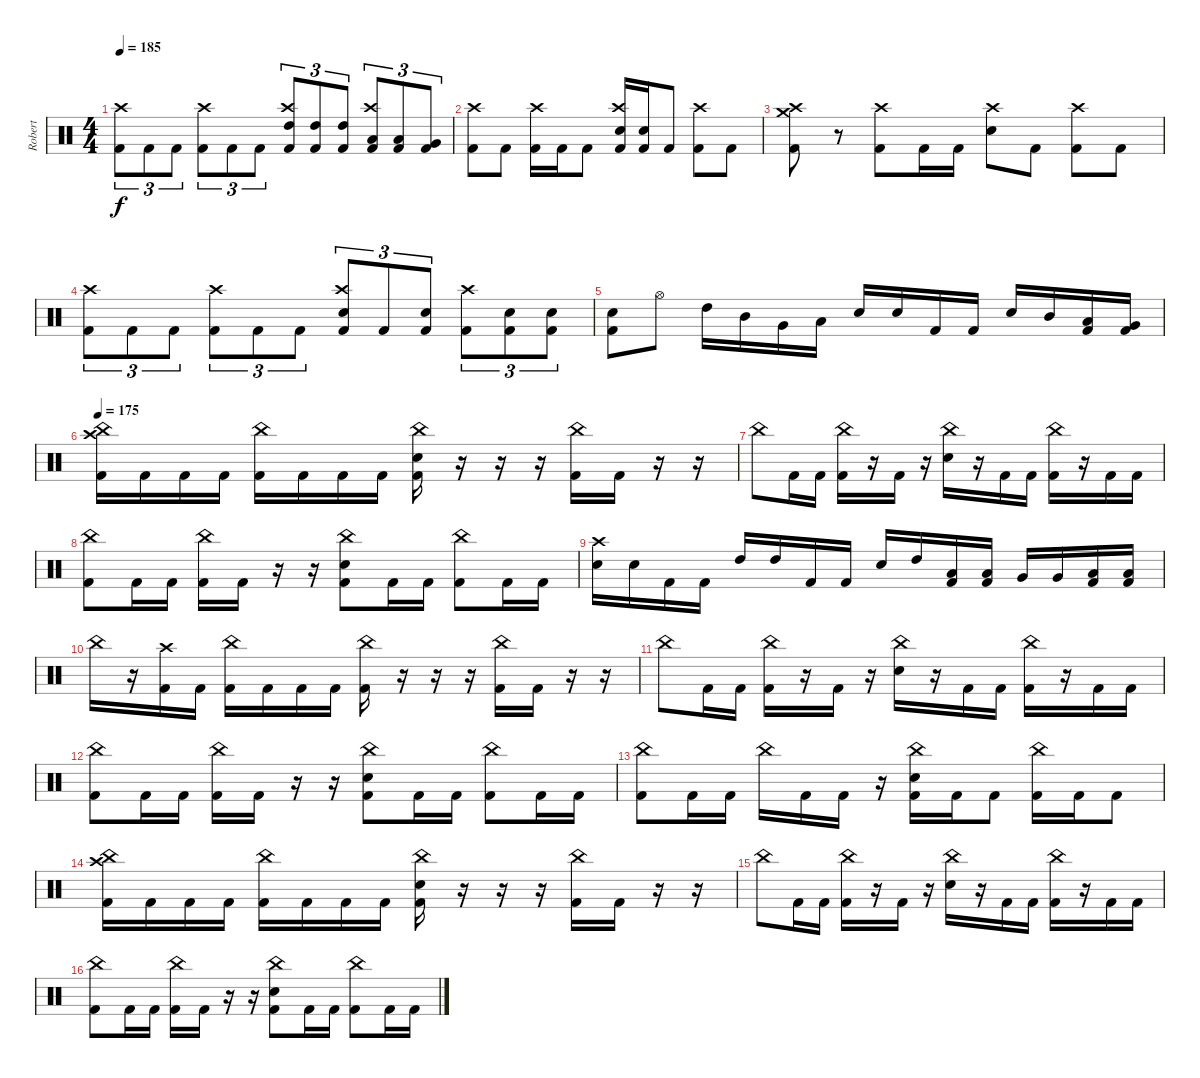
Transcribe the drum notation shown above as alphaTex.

\track ("Robert" "Robert") {instrument percussion}
\staff {score}
\articulation defaults
\ts (4 4)
\tempo 185
\clef neutral
\ks c
("Kick (hit) 2" "Crash high (hit)").8{tu (3 2) dy f} "Kick (hit) 2".8{tu (3 2)} "Kick (hit) 2".8{tu (3 2)} ("Kick (hit) 2" "Crash high (hit)").8{tu (3 2)} "Kick (hit) 2".8{tu (3 2)} "Kick (hit) 2".8{tu (3 2)} ("Kick (hit) 2" "High Tom (hit)" "Crash high (hit)").8{tu (3 2)} ("Kick (hit) 2" "High Tom (hit)").8{tu (3 2)} ("Kick (hit) 2" "High Tom (hit)").8{tu (3 2)} ("Kick (hit) 2" "Low Tom (hit)" "Crash high (hit)").8{tu (3 2)} ("Kick (hit) 2" "Low Tom (hit)").8{tu (3 2)} ("Kick (hit) 2" "Very Low Tom (hit)").8{tu (3 2)} |
("Crash high (hit)" "Kick (hit) 2").8 "Kick (hit) 2".8 ("Crash high (hit)" "Kick (hit) 2").16 "Kick (hit) 2".16 "Kick (hit) 2".8 ("Crash high (hit)" "Electric Snare (hit)" "Kick (hit) 2").16 ("Electric Snare (hit)" "Kick (hit) 2").16 "Kick (hit) 2".8 ("Crash high (hit)" "Kick (hit) 2").8 "Kick (hit) 2".8 |
("Kick (hit) 2" "Crash medium (hit)" "Crash high (hit)").8 r.8 ("Kick (hit) 2" "Crash high (hit)").8 "Kick (hit) 2".16 "Kick (hit) 2".16 ("Electric Snare (hit)" "Crash high (hit)").8 "Kick (hit) 2".8 ("Crash high (hit)" "Kick (hit) 2").8 "Kick (hit) 2".8 |
("Kick (hit) 2" "Crash high (hit)").8{tu (3 2)} "Kick (hit) 2".8{tu (3 2)} "Kick (hit) 2".8{tu (3 2)} ("Kick (hit) 2" "Crash high (hit)").8{tu (3 2)} "Kick (hit) 2".8{tu (3 2)} "Kick (hit) 2".8{tu (3 2)} ("Kick (hit) 2" "Electric Snare (hit)" "Crash high (hit)").8{tu (3 2)} "Kick (hit) 2".8{tu (3 2)} ("Kick (hit) 2" "Electric Snare (hit)").8{tu (3 2)} ("Kick (hit) 2" "Crash high (hit)").8{tu (3 2)} ("Kick (hit) 2" "Electric Snare (hit)").8{tu (3 2)} ("Kick (hit) 2" "Electric Snare (hit)").8{tu (3 2)} |
("Electric Snare (hit)" "Kick (hit) 2").8 "Hi-Hat (open)".8 "High Tom (hit)".16 "Mid Tom (hit)".16 "Very Low Tom (hit)".16 "Low Floor Tom (hit)".16 "Electric Snare (hit)".16 "Electric Snare (hit)".16 "Kick (hit) 2".16 "Kick (hit) 2".16 "Electric Snare (hit)".16 "Mid Tom (hit)".16 ("Kick (hit) 2" "Low Tom (hit)").16 ("Kick (hit) 2" "Very Low Tom (hit)").16 |
\tempo 175
("China (hit)" "Crash high (hit)" "Kick (hit) 2").16 "Kick (hit) 2".16 "Kick (hit) 2".16 "Kick (hit) 2".16 ("China (hit)" "Kick (hit) 2").16 "Kick (hit) 2".16 "Kick (hit) 2".16 "Kick (hit) 2".16 ("China (hit)" "Electric Snare (hit)" "Kick (hit) 2").16 r.16 r.16 r.16 ("China (hit)" "Kick (hit) 2").16 "Kick (hit) 2".16 r.16 r.16 |
"China (hit)".8 "Kick (hit) 2".16 "Kick (hit) 2".16 ("China (hit)" "Kick (hit) 2").16 r.16 "Kick (hit) 2".16 r.16 ("China (hit)" "Electric Snare (hit)").16 r.16 "Kick (hit) 2".16 "Kick (hit) 2".16 ("China (hit)" "Kick (hit) 2").16 r.16 "Kick (hit) 2".16 "Kick (hit) 2".16 |
("China (hit)" "Kick (hit) 2").8 "Kick (hit) 2".16 "Kick (hit) 2".16 ("China (hit)" "Kick (hit) 2").16 "Kick (hit) 2".16 r.16 r.16 ("China (hit)" "Electric Snare (hit)" "Kick (hit) 2").8 "Kick (hit) 2".16 "Kick (hit) 2".16 ("China (hit)" "Kick (hit) 2").8 "Kick (hit) 2".16 "Kick (hit) 2".16 |
("Electric Snare (hit)" "Crash high (hit)").16 "Electric Snare (hit)".16 "Kick (hit) 2".16 "Kick (hit) 2".16 "High Tom (hit)".16 "High Tom (hit)".16 "Kick (hit) 2".16 "Kick (hit) 2".16 "Electric Snare (hit)".16 "High Tom (hit)".16 ("Low Tom (hit)" "Kick (hit) 2").16 ("Low Tom (hit)" "Kick (hit) 2").16 "Very Low Tom (hit)".16 "Very Low Tom (hit)".16 ("Low Floor Tom (hit)" "Kick (hit) 2").16 ("Low Floor Tom (hit)" "Kick (hit) 2").16 |
"China (hit)".16 r.16 ("Crash high (hit)" "Kick (hit) 2").16 "Kick (hit) 2".16 ("China (hit)" "Kick (hit) 2").16 "Kick (hit) 2".16 "Kick (hit) 2".16 "Kick (hit) 2".16 ("China (hit)" "Kick (hit) 2").16 r.16 r.16 r.16 ("China (hit)" "Kick (hit) 2").16 "Kick (hit) 2".16 r.16 r.16 |
"China (hit)".8 "Kick (hit) 2".16 "Kick (hit) 2".16 ("China (hit)" "Kick (hit) 2").16 r.16 "Kick (hit) 2".16 r.16 ("China (hit)" "Electric Snare (hit)").16 r.16 "Kick (hit) 2".16 "Kick (hit) 2".16 ("China (hit)" "Kick (hit) 2").16 r.16 "Kick (hit) 2".16 "Kick (hit) 2".16 |
("China (hit)" "Kick (hit) 2").8 "Kick (hit) 2".16 "Kick (hit) 2".16 ("China (hit)" "Kick (hit) 2").16 "Kick (hit) 2".16 r.16 r.16 ("China (hit)" "Electric Snare (hit)" "Kick (hit) 2").8 "Kick (hit) 2".16 "Kick (hit) 2".16 ("China (hit)" "Kick (hit) 2").8 "Kick (hit) 2".16 "Kick (hit) 2".16 |
("China (hit)" "Kick (hit) 2").8 "Kick (hit) 2".16 "Kick (hit) 2".16 "China (hit)".16 "Kick (hit) 2".16 "Kick (hit) 2".16 r.16 ("China (hit)" "Electric Snare (hit)" "Kick (hit) 2").16 "Kick (hit) 2".16 "Kick (hit) 2".8 ("China (hit)" "Kick (hit) 2").16 "Kick (hit) 2".16 "Kick (hit) 2".8 |
("China (hit)" "Crash high (hit)" "Kick (hit) 2").16 "Kick (hit) 2".16 "Kick (hit) 2".16 "Kick (hit) 2".16 ("China (hit)" "Kick (hit) 2").16 "Kick (hit) 2".16 "Kick (hit) 2".16 "Kick (hit) 2".16 ("China (hit)" "Electric Snare (hit)" "Kick (hit) 2").16 r.16 r.16 r.16 ("China (hit)" "Kick (hit) 2").16 "Kick (hit) 2".16 r.16 r.16 |
"China (hit)".8 "Kick (hit) 2".16 "Kick (hit) 2".16 ("China (hit)" "Kick (hit) 2").16 r.16 "Kick (hit) 2".16 r.16 ("China (hit)" "Electric Snare (hit)").16 r.16 "Kick (hit) 2".16 "Kick (hit) 2".16 ("China (hit)" "Kick (hit) 2").16 r.16 "Kick (hit) 2".16 "Kick (hit) 2".16 |
("China (hit)" "Kick (hit) 2").8 "Kick (hit) 2".16 "Kick (hit) 2".16 ("China (hit)" "Kick (hit) 2").16 "Kick (hit) 2".16 r.16 r.16 ("China (hit)" "Electric Snare (hit)" "Kick (hit) 2").8 "Kick (hit) 2".16 "Kick (hit) 2".16 ("China (hit)" "Kick (hit) 2").8 "Kick (hit) 2".16 "Kick (hit) 2".16
